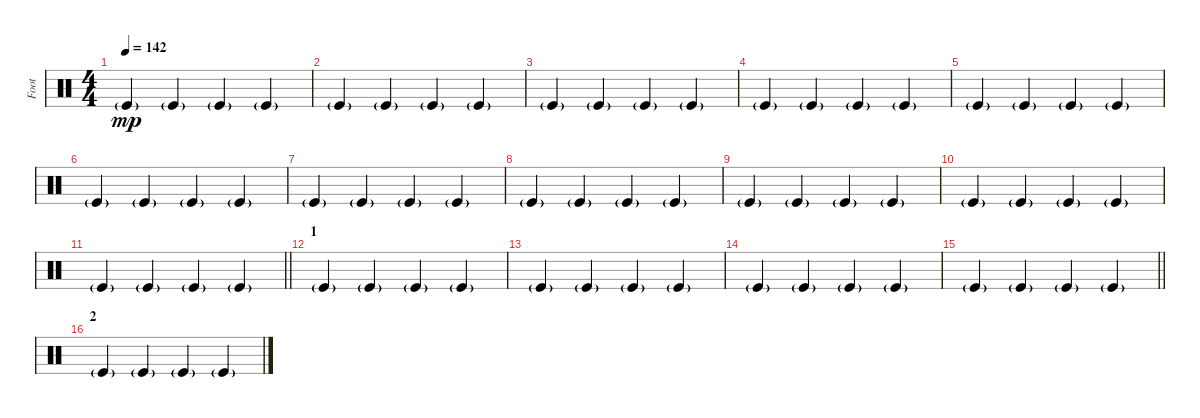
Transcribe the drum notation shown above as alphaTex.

\track ("Foot" "Foot") {instrument percussion}
\staff {score}
\articulation defaults
\ts (4 4)
\tempo 142
\clef neutral
\ks c "Kick (hit)"{g}.4{dy mp} "Kick (hit)"{g}.4 "Kick (hit)"{g}.4 "Kick (hit)"{g}.4
|
"Kick (hit)"{g}.4 "Kick (hit)"{g}.4 "Kick (hit)"{g}.4 "Kick (hit)"{g}.4 |
"Kick (hit)"{g}.4 "Kick (hit)"{g}.4 "Kick (hit)"{g}.4 "Kick (hit)"{g}.4 |
"Kick (hit)"{g}.4 "Kick (hit)"{g}.4 "Kick (hit)"{g}.4 "Kick (hit)"{g}.4 |
"Kick (hit)"{g}.4 "Kick (hit)"{g}.4 "Kick (hit)"{g}.4 "Kick (hit)"{g}.4 |
"Kick (hit)"{g}.4 "Kick (hit)"{g}.4 "Kick (hit)"{g}.4 "Kick (hit)"{g}.4 |
"Kick (hit)"{g}.4 "Kick (hit)"{g}.4 "Kick (hit)"{g}.4 "Kick (hit)"{g}.4 |
"Kick (hit)"{g}.4 "Kick (hit)"{g}.4 "Kick (hit)"{g}.4 "Kick (hit)"{g}.4 |
"Kick (hit)"{g}.4 "Kick (hit)"{g}.4 "Kick (hit)"{g}.4 "Kick (hit)"{g}.4 |
"Kick (hit)"{g}.4 "Kick (hit)"{g}.4 "Kick (hit)"{g}.4 "Kick (hit)"{g}.4 |
\barLineRight lightlight "Kick (hit)"{g}.4 "Kick (hit)"{g}.4 "Kick (hit)"{g}.4 "Kick (hit)"{g}.4
|
\section ("" "1")
"Kick (hit)"{g}.4 "Kick (hit)"{g}.4 "Kick (hit)"{g}.4 "Kick (hit)"{g}.4 |
"Kick (hit)"{g}.4 "Kick (hit)"{g}.4 "Kick (hit)"{g}.4 "Kick (hit)"{g}.4 |
"Kick (hit)"{g}.4 "Kick (hit)"{g}.4 "Kick (hit)"{g}.4 "Kick (hit)"{g}.4 |
\barLineRight lightlight "Kick (hit)"{g}.4 "Kick (hit)"{g}.4 "Kick (hit)"{g}.4 "Kick (hit)"{g}.4
|
\section ("" "2")
"Kick (hit)"{g}.4 "Kick (hit)"{g}.4 "Kick (hit)"{g}.4 "Kick (hit)"{g}.4
